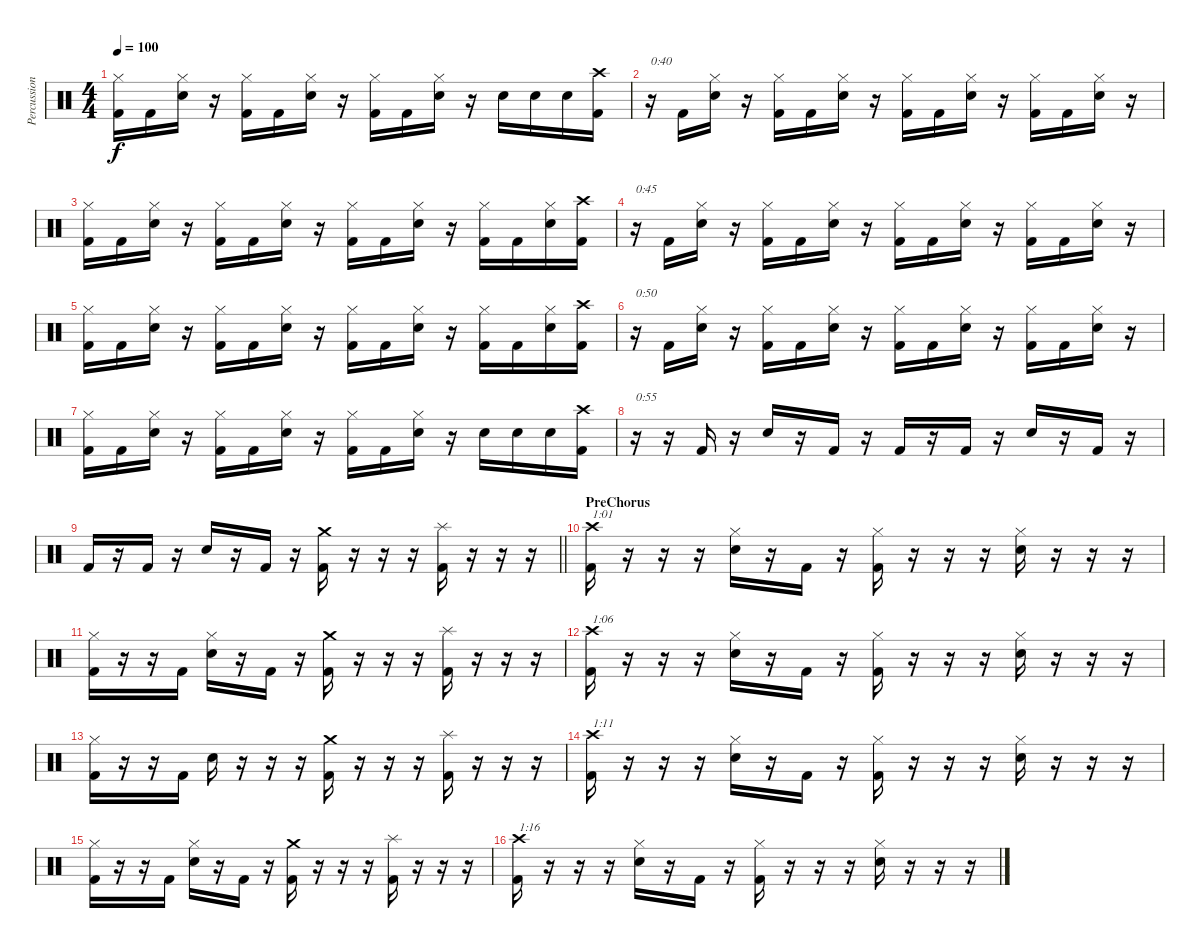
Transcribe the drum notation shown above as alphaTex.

\track ("Percussion" "Percussion") {instrument percussion}
\staff {score}
\articulation defaults
\ts (4 4)
\tempo 100
\clef neutral
\ks c
("Hi-Hat (closed)" "Kick (hit) 2").16{dy f} "Kick (hit) 2".16 ("Hi-Hat (closed)" "Electric Snare (hit)").16 r.16 ("Hi-Hat (closed)" "Kick (hit) 2").16 "Kick (hit) 2".16 ("Hi-Hat (closed)" "Electric Snare (hit)").16 r.16 ("Hi-Hat (closed)" "Kick (hit) 2").16 "Kick (hit) 2".16 ("Hi-Hat (closed)" "Electric Snare (hit)").16 r.16 "Electric Snare (hit)".16 "Electric Snare (hit)".16 "Electric Snare (hit)".16 ("Crash high (hit)" "Kick (hit) 2").16 |
r.16{txt "0:40"} "Kick (hit) 2".16 ("Hi-Hat (closed)" "Electric Snare (hit)").16 r.16 ("Hi-Hat (closed)" "Kick (hit) 2").16 "Kick (hit) 2".16 ("Hi-Hat (closed)" "Electric Snare (hit)").16 r.16 ("Hi-Hat (closed)" "Kick (hit) 2").16 "Kick (hit) 2".16 ("Hi-Hat (closed)" "Electric Snare (hit)").16 r.16 ("Hi-Hat (closed)" "Kick (hit) 2").16 "Kick (hit) 2".16 ("Hi-Hat (closed)" "Electric Snare (hit)").16 r.16 |
("Hi-Hat (closed)" "Kick (hit) 2").16 "Kick (hit) 2".16 ("Hi-Hat (closed)" "Electric Snare (hit)").16 r.16 ("Hi-Hat (closed)" "Kick (hit) 2").16 "Kick (hit) 2".16 ("Hi-Hat (closed)" "Electric Snare (hit)").16 r.16 ("Hi-Hat (closed)" "Kick (hit) 2").16 "Kick (hit) 2".16 ("Hi-Hat (closed)" "Electric Snare (hit)").16 r.16 ("Hi-Hat (closed)" "Kick (hit) 2").16 "Kick (hit) 2".16 ("Hi-Hat (closed)" "Electric Snare (hit)").16 ("Crash high (hit)" "Kick (hit) 2").16 |
r.16{txt "0:45"} "Kick (hit) 2".16 ("Hi-Hat (closed)" "Electric Snare (hit)").16 r.16 ("Hi-Hat (closed)" "Kick (hit) 2").16 "Kick (hit) 2".16 ("Hi-Hat (closed)" "Electric Snare (hit)").16 r.16 ("Hi-Hat (closed)" "Kick (hit) 2").16 "Kick (hit) 2".16 ("Hi-Hat (closed)" "Electric Snare (hit)").16 r.16 ("Hi-Hat (closed)" "Kick (hit) 2").16 "Kick (hit) 2".16 ("Hi-Hat (closed)" "Electric Snare (hit)").16 r.16 |
("Hi-Hat (closed)" "Kick (hit) 2").16 "Kick (hit) 2".16 ("Hi-Hat (closed)" "Electric Snare (hit)").16 r.16 ("Hi-Hat (closed)" "Kick (hit) 2").16 "Kick (hit) 2".16 ("Hi-Hat (closed)" "Electric Snare (hit)").16 r.16 ("Hi-Hat (closed)" "Kick (hit) 2").16 "Kick (hit) 2".16 ("Hi-Hat (closed)" "Electric Snare (hit)").16 r.16 ("Hi-Hat (closed)" "Kick (hit) 2").16 "Kick (hit) 2".16 ("Hi-Hat (closed)" "Electric Snare (hit)").16 ("Crash high (hit)" "Kick (hit) 2").16 |
r.16{txt "0:50"} "Kick (hit) 2".16 ("Hi-Hat (closed)" "Electric Snare (hit)").16 r.16 ("Hi-Hat (closed)" "Kick (hit) 2").16 "Kick (hit) 2".16 ("Hi-Hat (closed)" "Electric Snare (hit)").16 r.16 ("Hi-Hat (closed)" "Kick (hit) 2").16 "Kick (hit) 2".16 ("Hi-Hat (closed)" "Electric Snare (hit)").16 r.16 ("Hi-Hat (closed)" "Kick (hit) 2").16 "Kick (hit) 2".16 ("Hi-Hat (closed)" "Electric Snare (hit)").16 r.16 |
("Hi-Hat (closed)" "Kick (hit) 2").16 "Kick (hit) 2".16 ("Hi-Hat (closed)" "Electric Snare (hit)").16 r.16 ("Hi-Hat (closed)" "Kick (hit) 2").16 "Kick (hit) 2".16 ("Hi-Hat (closed)" "Electric Snare (hit)").16 r.16 ("Hi-Hat (closed)" "Kick (hit) 2").16 "Kick (hit) 2".16 ("Hi-Hat (closed)" "Electric Snare (hit)").16 r.16 "Electric Snare (hit)".16 "Electric Snare (hit)".16 "Electric Snare (hit)".16 ("Crash high (hit)" "Kick (hit) 2").16 |
r.16{txt "0:55"} r.16 "Kick (hit) 2".16 r.16 "Electric Snare (hit)".16 r.16 "Kick (hit) 2".16 r.16 "Kick (hit) 2".16 r.16 "Kick (hit) 2".16 r.16 "Electric Snare (hit)".16 r.16 "Kick (hit) 2".16 r.16 |
\barLineRight lightlight "Kick (hit) 2".16
r.16 "Kick (hit) 2".16 r.16 "Electric Snare (hit)".16 r.16 "Kick (hit) 2".16 r.16 ("Crash medium (hit)" "Kick (hit) 2").16 r.16 r.16 r.16 ("Splash (hit)" "Kick (hit) 2").16 r.16 r.16 r.16 |
\section ("" "PreChorus")
("Crash high (hit)" "Kick (hit) 2").16{txt "1:01"} r.16 r.16 r.16 ("Hi-Hat (closed)" "Electric Snare (hit)").16 r.16 "Kick (hit) 2".16 r.16 ("Hi-Hat (closed)" "Kick (hit) 2").16 r.16 r.16 r.16 ("Hi-Hat (closed)" "Electric Snare (hit)").16 r.16 r.16 r.16 |
("Hi-Hat (closed)" "Kick (hit) 2").16 r.16 r.16 "Kick (hit) 2".16 ("Hi-Hat (closed)" "Electric Snare (hit)").16 r.16 "Kick (hit) 2".16 r.16 ("Crash medium (hit)" "Kick (hit) 2").16 r.16 r.16 r.16 ("Splash (hit)" "Kick (hit) 2").16 r.16 r.16 r.16 |
("Crash high (hit)" "Kick (hit) 2").16{txt "1:06"} r.16 r.16 r.16 ("Hi-Hat (closed)" "Electric Snare (hit)").16 r.16 "Kick (hit) 2".16 r.16 ("Hi-Hat (closed)" "Kick (hit) 2").16 r.16 r.16 r.16 ("Hi-Hat (closed)" "Electric Snare (hit)").16 r.16 r.16 r.16 |
("Hi-Hat (closed)" "Kick (hit) 2").16 r.16 r.16 "Kick (hit) 2".16 "Electric Snare (hit)".16 r.16 r.16 r.16 ("Crash medium (hit)" "Kick (hit) 2").16 r.16 r.16 r.16 ("Splash (hit)" "Kick (hit) 2").16 r.16 r.16 r.16 |
("Crash high (hit)" "Kick (hit) 2").16{txt "1:11"} r.16 r.16 r.16 ("Hi-Hat (closed)" "Electric Snare (hit)").16 r.16 "Kick (hit) 2".16 r.16 ("Hi-Hat (closed)" "Kick (hit) 2").16 r.16 r.16 r.16 ("Hi-Hat (closed)" "Electric Snare (hit)").16 r.16 r.16 r.16 |
("Hi-Hat (closed)" "Kick (hit) 2").16 r.16 r.16 "Kick (hit) 2".16 ("Hi-Hat (closed)" "Electric Snare (hit)").16 r.16 "Kick (hit) 2".16 r.16 ("Crash medium (hit)" "Kick (hit) 2").16 r.16 r.16 r.16 ("Splash (hit)" "Kick (hit) 2").16 r.16 r.16 r.16 |
("Crash high (hit)" "Kick (hit) 2").16{txt "1:16"} r.16 r.16 r.16 ("Hi-Hat (closed)" "Electric Snare (hit)").16 r.16 "Kick (hit) 2".16 r.16 ("Hi-Hat (closed)" "Kick (hit) 2").16 r.16 r.16 r.16 ("Hi-Hat (closed)" "Electric Snare (hit)").16 r.16 r.16 r.16
